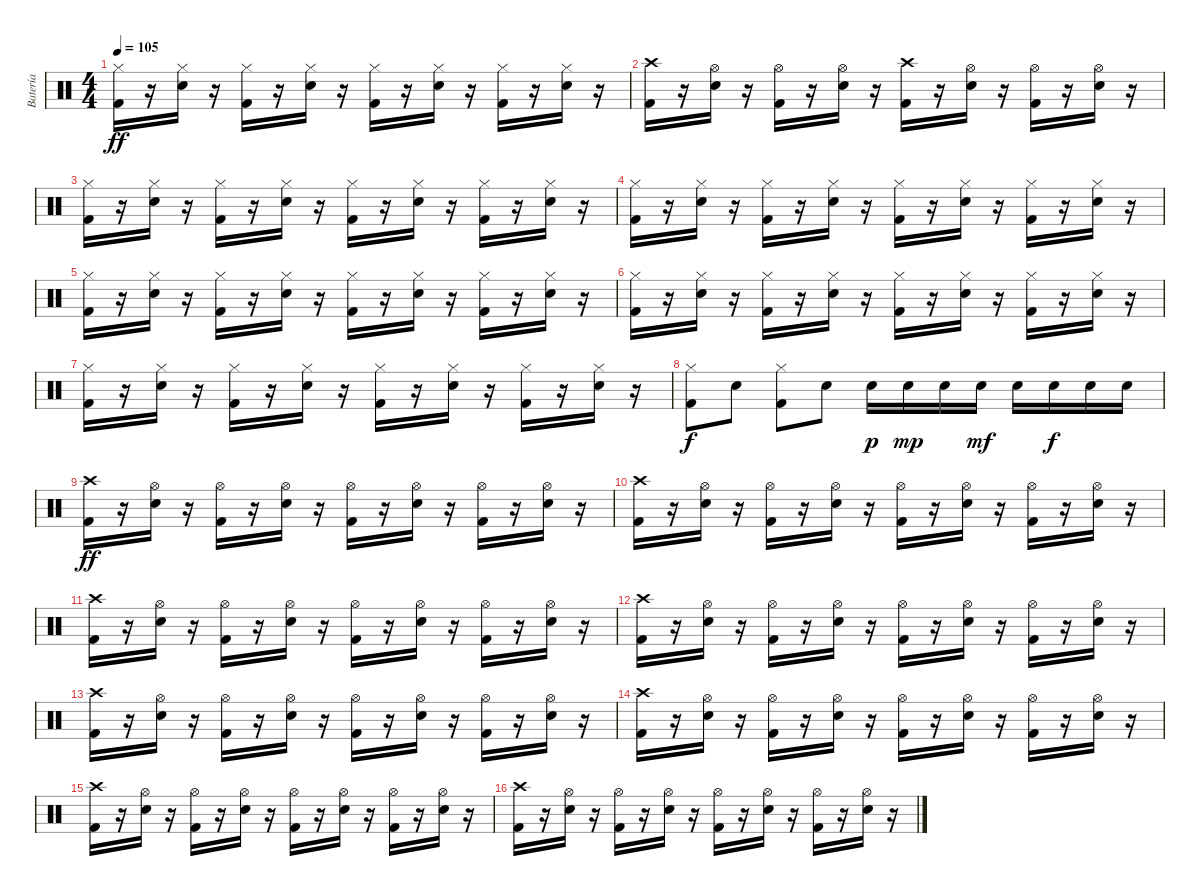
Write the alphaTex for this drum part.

\track ("Batería" "Batería") {instrument percussion}
\staff {score}
\articulation defaults
\ts (4 4)
\tempo 105
\clef neutral
\ks c
("Hi-Hat (closed)" "Kick (hit) 2").16{dy ff} r.16 ("Hi-Hat (closed)" "Electric Snare (hit)").16 r.16 ("Hi-Hat (closed)" "Kick (hit) 2").16 r.16 ("Hi-Hat (closed)" "Electric Snare (hit)").16 r.16 ("Hi-Hat (closed)" "Kick (hit) 2").16 r.16 ("Hi-Hat (closed)" "Electric Snare (hit)").16 r.16 ("Hi-Hat (closed)" "Kick (hit) 2").16 r.16 ("Hi-Hat (closed)" "Electric Snare (hit)").16 r.16 |
("Crash high (hit)" "Kick (hit) 2").16 r.16 ("Hi-Hat (open)" "Electric Snare (hit)").16 r.16 ("Hi-Hat (open)" "Kick (hit) 2").16 r.16 ("Hi-Hat (open)" "Electric Snare (hit)").16 r.16 ("Crash high (hit)" "Kick (hit) 2").16 r.16 ("Hi-Hat (open)" "Electric Snare (hit)").16 r.16 ("Hi-Hat (open)" "Kick (hit) 2").16 r.16 ("Hi-Hat (open)" "Electric Snare (hit)").16 r.16 |
("Hi-Hat (closed)" "Kick (hit) 2").16 r.16 ("Hi-Hat (closed)" "Electric Snare (hit)").16 r.16 ("Hi-Hat (closed)" "Kick (hit) 2").16 r.16 ("Hi-Hat (closed)" "Electric Snare (hit)").16 r.16 ("Hi-Hat (closed)" "Kick (hit) 2").16 r.16 ("Hi-Hat (closed)" "Electric Snare (hit)").16 r.16 ("Hi-Hat (closed)" "Kick (hit) 2").16 r.16 ("Hi-Hat (closed)" "Electric Snare (hit)").16 r.16 |
("Hi-Hat (closed)" "Kick (hit) 2").16 r.16 ("Hi-Hat (closed)" "Electric Snare (hit)").16 r.16 ("Hi-Hat (closed)" "Kick (hit) 2").16 r.16 ("Hi-Hat (closed)" "Electric Snare (hit)").16 r.16 ("Hi-Hat (closed)" "Kick (hit) 2").16 r.16 ("Hi-Hat (closed)" "Electric Snare (hit)").16 r.16 ("Hi-Hat (closed)" "Kick (hit) 2").16 r.16 ("Hi-Hat (closed)" "Electric Snare (hit)").16 r.16 |
("Hi-Hat (closed)" "Kick (hit) 2").16 r.16 ("Hi-Hat (closed)" "Electric Snare (hit)").16 r.16 ("Hi-Hat (closed)" "Kick (hit) 2").16 r.16 ("Hi-Hat (closed)" "Electric Snare (hit)").16 r.16 ("Hi-Hat (closed)" "Kick (hit) 2").16 r.16 ("Hi-Hat (closed)" "Electric Snare (hit)").16 r.16 ("Hi-Hat (closed)" "Kick (hit) 2").16 r.16 ("Hi-Hat (closed)" "Electric Snare (hit)").16 r.16 |
("Hi-Hat (closed)" "Kick (hit) 2").16 r.16 ("Hi-Hat (closed)" "Electric Snare (hit)").16 r.16 ("Hi-Hat (closed)" "Kick (hit) 2").16 r.16 ("Hi-Hat (closed)" "Electric Snare (hit)").16 r.16 ("Hi-Hat (closed)" "Kick (hit) 2").16 r.16 ("Hi-Hat (closed)" "Electric Snare (hit)").16 r.16 ("Hi-Hat (closed)" "Kick (hit) 2").16 r.16 ("Hi-Hat (closed)" "Electric Snare (hit)").16 r.16 |
("Hi-Hat (closed)" "Kick (hit) 2").16 r.16 ("Hi-Hat (closed)" "Electric Snare (hit)").16 r.16 ("Hi-Hat (closed)" "Kick (hit) 2").16 r.16 ("Hi-Hat (closed)" "Electric Snare (hit)").16 r.16 ("Hi-Hat (closed)" "Kick (hit) 2").16 r.16 ("Hi-Hat (closed)" "Electric Snare (hit)").16 r.16 ("Hi-Hat (closed)" "Kick (hit) 2").16 r.16 ("Hi-Hat (closed)" "Electric Snare (hit)").16 r.16 |
("Hi-Hat (closed)" "Kick (hit) 2").8{dy f} "Electric Snare (hit)".8 ("Hi-Hat (closed)" "Kick (hit) 2").8 "Electric Snare (hit)".8 "Electric Snare (hit)".16{dy p} "Electric Snare (hit)".16{dy mp} "Electric Snare (hit)".16 "Electric Snare (hit)".16{dy mf} "Electric Snare (hit)".16 "Electric Snare (hit)".16{dy f} "Electric Snare (hit)".16 "Electric Snare (hit)".16 |
("Crash high (hit)" "Kick (hit) 2").16{dy ff} r.16 ("Hi-Hat (open)" "Electric Snare (hit)").16 r.16 ("Hi-Hat (open)" "Kick (hit) 2").16 r.16 ("Hi-Hat (open)" "Electric Snare (hit)").16 r.16 ("Hi-Hat (open)" "Kick (hit) 2").16 r.16 ("Hi-Hat (open)" "Electric Snare (hit)").16 r.16 ("Hi-Hat (open)" "Kick (hit) 2").16 r.16 ("Hi-Hat (open)" "Electric Snare (hit)").16 r.16 |
("Crash high (hit)" "Kick (hit) 2").16 r.16 ("Hi-Hat (open)" "Electric Snare (hit)").16 r.16 ("Hi-Hat (open)" "Kick (hit) 2").16 r.16 ("Hi-Hat (open)" "Electric Snare (hit)").16 r.16 ("Hi-Hat (open)" "Kick (hit) 2").16 r.16 ("Hi-Hat (open)" "Electric Snare (hit)").16 r.16 ("Hi-Hat (open)" "Kick (hit) 2").16 r.16 ("Hi-Hat (open)" "Electric Snare (hit)").16 r.16 |
("Crash high (hit)" "Kick (hit) 2").16 r.16 ("Hi-Hat (open)" "Electric Snare (hit)").16 r.16 ("Hi-Hat (open)" "Kick (hit) 2").16 r.16 ("Hi-Hat (open)" "Electric Snare (hit)").16 r.16 ("Hi-Hat (open)" "Kick (hit) 2").16 r.16 ("Hi-Hat (open)" "Electric Snare (hit)").16 r.16 ("Hi-Hat (open)" "Kick (hit) 2").16 r.16 ("Hi-Hat (open)" "Electric Snare (hit)").16 r.16 |
("Crash high (hit)" "Kick (hit) 2").16 r.16 ("Hi-Hat (open)" "Electric Snare (hit)").16 r.16 ("Hi-Hat (open)" "Kick (hit) 2").16 r.16 ("Hi-Hat (open)" "Electric Snare (hit)").16 r.16 ("Hi-Hat (open)" "Kick (hit) 2").16 r.16 ("Hi-Hat (open)" "Electric Snare (hit)").16 r.16 ("Hi-Hat (open)" "Kick (hit) 2").16 r.16 ("Hi-Hat (open)" "Electric Snare (hit)").16 r.16 |
("Crash high (hit)" "Kick (hit) 2").16 r.16 ("Hi-Hat (open)" "Electric Snare (hit)").16 r.16 ("Hi-Hat (open)" "Kick (hit) 2").16 r.16 ("Hi-Hat (open)" "Electric Snare (hit)").16 r.16 ("Hi-Hat (open)" "Kick (hit) 2").16 r.16 ("Hi-Hat (open)" "Electric Snare (hit)").16 r.16 ("Hi-Hat (open)" "Kick (hit) 2").16 r.16 ("Hi-Hat (open)" "Electric Snare (hit)").16 r.16 |
("Crash high (hit)" "Kick (hit) 2").16 r.16 ("Hi-Hat (open)" "Electric Snare (hit)").16 r.16 ("Hi-Hat (open)" "Kick (hit) 2").16 r.16 ("Hi-Hat (open)" "Electric Snare (hit)").16 r.16 ("Hi-Hat (open)" "Kick (hit) 2").16 r.16 ("Hi-Hat (open)" "Electric Snare (hit)").16 r.16 ("Hi-Hat (open)" "Kick (hit) 2").16 r.16 ("Hi-Hat (open)" "Electric Snare (hit)").16 r.16 |
("Crash high (hit)" "Kick (hit) 2").16 r.16 ("Hi-Hat (open)" "Electric Snare (hit)").16 r.16 ("Hi-Hat (open)" "Kick (hit) 2").16 r.16 ("Hi-Hat (open)" "Electric Snare (hit)").16 r.16 ("Hi-Hat (open)" "Kick (hit) 2").16 r.16 ("Hi-Hat (open)" "Electric Snare (hit)").16 r.16 ("Hi-Hat (open)" "Kick (hit) 2").16 r.16 ("Hi-Hat (open)" "Electric Snare (hit)").16 r.16 |
("Crash high (hit)" "Kick (hit) 2").16 r.16 ("Hi-Hat (open)" "Electric Snare (hit)").16 r.16 ("Hi-Hat (open)" "Kick (hit) 2").16 r.16 ("Hi-Hat (open)" "Electric Snare (hit)").16 r.16 ("Hi-Hat (open)" "Kick (hit) 2").16 r.16 ("Hi-Hat (open)" "Electric Snare (hit)").16 r.16 ("Hi-Hat (open)" "Kick (hit) 2").16 r.16 ("Hi-Hat (open)" "Electric Snare (hit)").16 r.16
